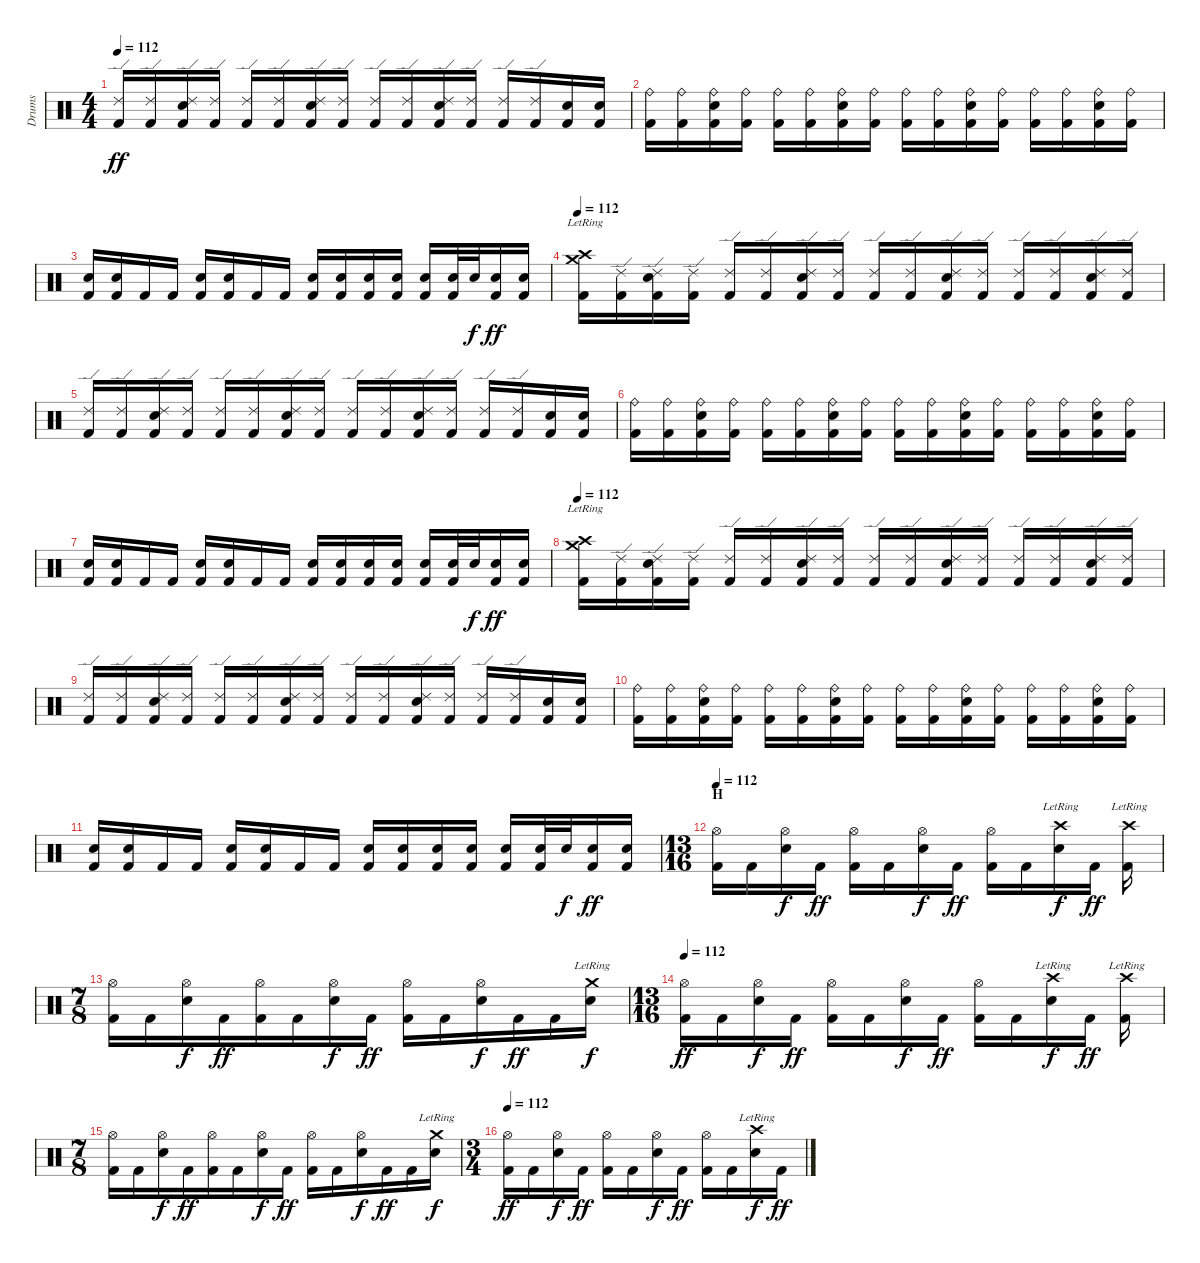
\track ("Drums" "Drums") {instrument percussion}
\staff {score}
\articulation defaults
\ts (4 4)
\tempo 112
\clef neutral
\ks c
("Ride (edge) 2" "Kick (hit) 2").16{dy ff} ("Ride (edge) 2" "Kick (hit) 2").16 ("Ride (edge) 2" "Snare (hit) 2" "Kick (hit) 2").16 ("Ride (edge) 2" "Kick (hit) 2").16 ("Ride (edge) 2" "Kick (hit) 2").16 ("Ride (edge) 2" "Kick (hit) 2").16 ("Ride (edge) 2" "Snare (hit) 2" "Kick (hit) 2").16 ("Ride (edge) 2" "Kick (hit) 2").16 ("Ride (edge) 2" "Kick (hit) 2").16 ("Ride (edge) 2" "Kick (hit) 2").16 ("Ride (edge) 2" "Snare (hit) 2" "Kick (hit) 2").16 ("Ride (edge) 2" "Kick (hit) 2").16 ("Ride (edge) 2" "Kick (hit) 2").16 ("Ride (edge) 2" "Kick (hit) 2").16 ("Snare (hit) 2" "Kick (hit) 2").16 ("Snare (hit) 2" "Kick (hit) 2").16 |
("Ride (bell)" "Kick (hit) 2").16 ("Ride (bell)" "Kick (hit) 2").16 ("Ride (bell)" "Snare (hit) 2" "Kick (hit) 2").16 ("Ride (bell)" "Kick (hit) 2").16 ("Ride (bell)" "Kick (hit) 2").16 ("Ride (bell)" "Kick (hit) 2").16 ("Ride (bell)" "Snare (hit) 2" "Kick (hit) 2").16 ("Ride (bell)" "Kick (hit) 2").16 ("Ride (bell)" "Kick (hit) 2").16 ("Ride (bell)" "Kick (hit) 2").16 ("Ride (bell)" "Snare (hit) 2" "Kick (hit) 2").16 ("Ride (bell)" "Kick (hit) 2").16 ("Ride (bell)" "Kick (hit) 2").16 ("Ride (bell)" "Kick (hit) 2").16 ("Ride (bell)" "Snare (hit) 2" "Kick (hit) 2").16 ("Ride (bell)" "Kick (hit) 2").16 |
("Snare (hit) 2" "Kick (hit) 2").16 ("Snare (hit) 2" "Kick (hit) 2").16 "Kick (hit) 2".16 "Kick (hit) 2".16 ("Snare (hit) 2" "Kick (hit) 2").16 ("Snare (hit) 2" "Kick (hit) 2").16 "Kick (hit) 2".16 "Kick (hit) 2".16 ("Snare (hit) 2" "Kick (hit) 2").16 ("Snare (hit) 2" "Kick (hit) 2").16 ("Snare (hit) 2" "Kick (hit) 2").16 ("Snare (hit) 2" "Kick (hit) 2").16 ("Snare (hit) 2" "Kick (hit) 2").16 ("Snare (hit) 2" "Kick (hit) 2").32 "Snare (hit) 2".32{dy f} ("Snare (hit) 2" "Kick (hit) 2").16{dy ff} ("Snare (hit) 2" "Kick (hit) 2").16 |
\tempo 112
("Crash medium (hit)"{lr} "Crash high (hit)" "Kick (hit) 2").16 ("Ride (edge) 2" "Kick (hit) 2").16 ("Ride (edge) 2" "Snare (hit) 2" "Kick (hit) 2").16 ("Ride (edge) 2" "Kick (hit) 2").16 ("Ride (edge) 2" "Kick (hit) 2").16 ("Ride (edge) 2" "Kick (hit) 2").16 ("Ride (edge) 2" "Snare (hit) 2" "Kick (hit) 2").16 ("Ride (edge) 2" "Kick (hit) 2").16 ("Ride (edge) 2" "Kick (hit) 2").16 ("Ride (edge) 2" "Kick (hit) 2").16 ("Ride (edge) 2" "Snare (hit) 2" "Kick (hit) 2").16 ("Ride (edge) 2" "Kick (hit) 2").16 ("Ride (edge) 2" "Kick (hit) 2").16 ("Ride (edge) 2" "Kick (hit) 2").16 ("Ride (edge) 2" "Snare (hit) 2" "Kick (hit) 2").16 ("Ride (edge) 2" "Kick (hit) 2").16 |
("Ride (edge) 2" "Kick (hit) 2").16 ("Ride (edge) 2" "Kick (hit) 2").16 ("Ride (edge) 2" "Snare (hit) 2" "Kick (hit) 2").16 ("Ride (edge) 2" "Kick (hit) 2").16 ("Ride (edge) 2" "Kick (hit) 2").16 ("Ride (edge) 2" "Kick (hit) 2").16 ("Ride (edge) 2" "Snare (hit) 2" "Kick (hit) 2").16 ("Ride (edge) 2" "Kick (hit) 2").16 ("Ride (edge) 2" "Kick (hit) 2").16 ("Ride (edge) 2" "Kick (hit) 2").16 ("Ride (edge) 2" "Snare (hit) 2" "Kick (hit) 2").16 ("Ride (edge) 2" "Kick (hit) 2").16 ("Ride (edge) 2" "Kick (hit) 2").16 ("Ride (edge) 2" "Kick (hit) 2").16 ("Snare (hit) 2" "Kick (hit) 2").16 ("Snare (hit) 2" "Kick (hit) 2").16 |
("Ride (bell)" "Kick (hit) 2").16 ("Ride (bell)" "Kick (hit) 2").16 ("Ride (bell)" "Snare (hit) 2" "Kick (hit) 2").16 ("Ride (bell)" "Kick (hit) 2").16 ("Ride (bell)" "Kick (hit) 2").16 ("Ride (bell)" "Kick (hit) 2").16 ("Ride (bell)" "Snare (hit) 2" "Kick (hit) 2").16 ("Ride (bell)" "Kick (hit) 2").16 ("Ride (bell)" "Kick (hit) 2").16 ("Ride (bell)" "Kick (hit) 2").16 ("Ride (bell)" "Snare (hit) 2" "Kick (hit) 2").16 ("Ride (bell)" "Kick (hit) 2").16 ("Ride (bell)" "Kick (hit) 2").16 ("Ride (bell)" "Kick (hit) 2").16 ("Ride (bell)" "Snare (hit) 2" "Kick (hit) 2").16 ("Ride (bell)" "Kick (hit) 2").16 |
("Snare (hit) 2" "Kick (hit) 2").16 ("Snare (hit) 2" "Kick (hit) 2").16 "Kick (hit) 2".16 "Kick (hit) 2".16 ("Snare (hit) 2" "Kick (hit) 2").16 ("Snare (hit) 2" "Kick (hit) 2").16 "Kick (hit) 2".16 "Kick (hit) 2".16 ("Snare (hit) 2" "Kick (hit) 2").16 ("Snare (hit) 2" "Kick (hit) 2").16 ("Snare (hit) 2" "Kick (hit) 2").16 ("Snare (hit) 2" "Kick (hit) 2").16 ("Snare (hit) 2" "Kick (hit) 2").16 ("Snare (hit) 2" "Kick (hit) 2").32 "Snare (hit) 2".32{dy f} ("Snare (hit) 2" "Kick (hit) 2").16{dy ff} ("Snare (hit) 2" "Kick (hit) 2").16 |
\tempo 112
("Crash medium (hit)"{lr} "Crash high (hit)" "Kick (hit) 2").16 ("Ride (edge) 2" "Kick (hit) 2").16 ("Ride (edge) 2" "Snare (hit) 2" "Kick (hit) 2").16 ("Ride (edge) 2" "Kick (hit) 2").16 ("Ride (edge) 2" "Kick (hit) 2").16 ("Ride (edge) 2" "Kick (hit) 2").16 ("Ride (edge) 2" "Snare (hit) 2" "Kick (hit) 2").16 ("Ride (edge) 2" "Kick (hit) 2").16 ("Ride (edge) 2" "Kick (hit) 2").16 ("Ride (edge) 2" "Kick (hit) 2").16 ("Ride (edge) 2" "Snare (hit) 2" "Kick (hit) 2").16 ("Ride (edge) 2" "Kick (hit) 2").16 ("Ride (edge) 2" "Kick (hit) 2").16 ("Ride (edge) 2" "Kick (hit) 2").16 ("Ride (edge) 2" "Snare (hit) 2" "Kick (hit) 2").16 ("Ride (edge) 2" "Kick (hit) 2").16 |
("Ride (edge) 2" "Kick (hit) 2").16 ("Ride (edge) 2" "Kick (hit) 2").16 ("Ride (edge) 2" "Snare (hit) 2" "Kick (hit) 2").16 ("Ride (edge) 2" "Kick (hit) 2").16 ("Ride (edge) 2" "Kick (hit) 2").16 ("Ride (edge) 2" "Kick (hit) 2").16 ("Ride (edge) 2" "Snare (hit) 2" "Kick (hit) 2").16 ("Ride (edge) 2" "Kick (hit) 2").16 ("Ride (edge) 2" "Kick (hit) 2").16 ("Ride (edge) 2" "Kick (hit) 2").16 ("Ride (edge) 2" "Snare (hit) 2" "Kick (hit) 2").16 ("Ride (edge) 2" "Kick (hit) 2").16 ("Ride (edge) 2" "Kick (hit) 2").16 ("Ride (edge) 2" "Kick (hit) 2").16 ("Snare (hit) 2" "Kick (hit) 2").16 ("Snare (hit) 2" "Kick (hit) 2").16 |
("Ride (bell)" "Kick (hit) 2").16 ("Ride (bell)" "Kick (hit) 2").16 ("Ride (bell)" "Snare (hit) 2" "Kick (hit) 2").16 ("Ride (bell)" "Kick (hit) 2").16 ("Ride (bell)" "Kick (hit) 2").16 ("Ride (bell)" "Kick (hit) 2").16 ("Ride (bell)" "Snare (hit) 2" "Kick (hit) 2").16 ("Ride (bell)" "Kick (hit) 2").16 ("Ride (bell)" "Kick (hit) 2").16 ("Ride (bell)" "Kick (hit) 2").16 ("Ride (bell)" "Snare (hit) 2" "Kick (hit) 2").16 ("Ride (bell)" "Kick (hit) 2").16 ("Ride (bell)" "Kick (hit) 2").16 ("Ride (bell)" "Kick (hit) 2").16 ("Ride (bell)" "Snare (hit) 2" "Kick (hit) 2").16 ("Ride (bell)" "Kick (hit) 2").16 |
("Snare (hit) 2" "Kick (hit) 2").16 ("Snare (hit) 2" "Kick (hit) 2").16 "Kick (hit) 2".16 "Kick (hit) 2".16 ("Snare (hit) 2" "Kick (hit) 2").16 ("Snare (hit) 2" "Kick (hit) 2").16 "Kick (hit) 2".16 "Kick (hit) 2".16 ("Snare (hit) 2" "Kick (hit) 2").16 ("Snare (hit) 2" "Kick (hit) 2").16 ("Snare (hit) 2" "Kick (hit) 2").16 ("Snare (hit) 2" "Kick (hit) 2").16 ("Snare (hit) 2" "Kick (hit) 2").16 ("Snare (hit) 2" "Kick (hit) 2").32 "Snare (hit) 2".32{dy f} ("Snare (hit) 2" "Kick (hit) 2").16{dy ff} ("Snare (hit) 2" "Kick (hit) 2").16 |
\ts (13 16)
\section ("" "H")
\tempo 112
("Hi-Hat (open)" "Kick (hit) 2").16 "Kick (hit) 2".16 ("Hi-Hat (open)" "Snare (hit) 2").16{dy f} "Kick (hit) 2".16{dy ff} ("Hi-Hat (open)" "Kick (hit) 2").16 "Kick (hit) 2".16 ("Hi-Hat (open)" "Snare (hit) 2").16{dy f} "Kick (hit) 2".16{dy ff} ("Hi-Hat (open)" "Kick (hit) 2").16 "Kick (hit) 2".16 ("Crash high (hit)"{lr} "Snare (hit) 2").16{dy f} "Kick (hit) 2".16{dy ff} ("Crash high (hit)"{lr} "Kick (hit) 2").16 |
\ts (7 8)
("Hi-Hat (open)" "Kick (hit) 2").16 "Kick (hit) 2".16 ("Hi-Hat (open)" "Snare (hit) 2").16{dy f} "Kick (hit) 2".16{dy ff} ("Hi-Hat (open)" "Kick (hit) 2").16 "Kick (hit) 2".16 ("Hi-Hat (open)" "Snare (hit) 2").16{dy f} "Kick (hit) 2".16{dy ff} ("Hi-Hat (open)" "Kick (hit) 2").16 "Kick (hit) 2".16 ("Hi-Hat (open)" "Snare (hit) 2").16{dy f} "Kick (hit) 2".16{dy ff} "Kick (hit) 2".16 ("Crash medium (hit)"{lr} "Snare (hit) 2").16{dy f} |
\ts (13 16)
\tempo 112
("Hi-Hat (open)" "Kick (hit) 2").16{dy ff} "Kick (hit) 2".16 ("Hi-Hat (open)" "Snare (hit) 2").16{dy f} "Kick (hit) 2".16{dy ff} ("Hi-Hat (open)" "Kick (hit) 2").16 "Kick (hit) 2".16 ("Hi-Hat (open)" "Snare (hit) 2").16{dy f} "Kick (hit) 2".16{dy ff} ("Hi-Hat (open)" "Kick (hit) 2").16 "Kick (hit) 2".16 ("Crash high (hit)"{lr} "Snare (hit) 2").16{dy f} "Kick (hit) 2".16{dy ff} ("Crash high (hit)"{lr} "Kick (hit) 2").16 |
\ts (7 8)
("Hi-Hat (open)" "Kick (hit) 2").16 "Kick (hit) 2".16 ("Hi-Hat (open)" "Snare (hit) 2").16{dy f} "Kick (hit) 2".16{dy ff} ("Hi-Hat (open)" "Kick (hit) 2").16 "Kick (hit) 2".16 ("Hi-Hat (open)" "Snare (hit) 2").16{dy f} "Kick (hit) 2".16{dy ff} ("Hi-Hat (open)" "Kick (hit) 2").16 "Kick (hit) 2".16 ("Hi-Hat (open)" "Snare (hit) 2").16{dy f} "Kick (hit) 2".16{dy ff} "Kick (hit) 2".16 ("Crash medium (hit)"{lr} "Snare (hit) 2").16{dy f} |
\ts (3 4)
\tempo 112
("Hi-Hat (open)" "Kick (hit) 2").16{dy ff} "Kick (hit) 2".16 ("Hi-Hat (open)" "Snare (hit) 2").16{dy f} "Kick (hit) 2".16{dy ff} ("Hi-Hat (open)" "Kick (hit) 2").16 "Kick (hit) 2".16 ("Hi-Hat (open)" "Snare (hit) 2").16{dy f} "Kick (hit) 2".16{dy ff} ("Hi-Hat (open)" "Kick (hit) 2").16 "Kick (hit) 2".16 ("Crash high (hit)"{lr} "Snare (hit) 2").16{dy f} "Kick (hit) 2".16{dy ff}
